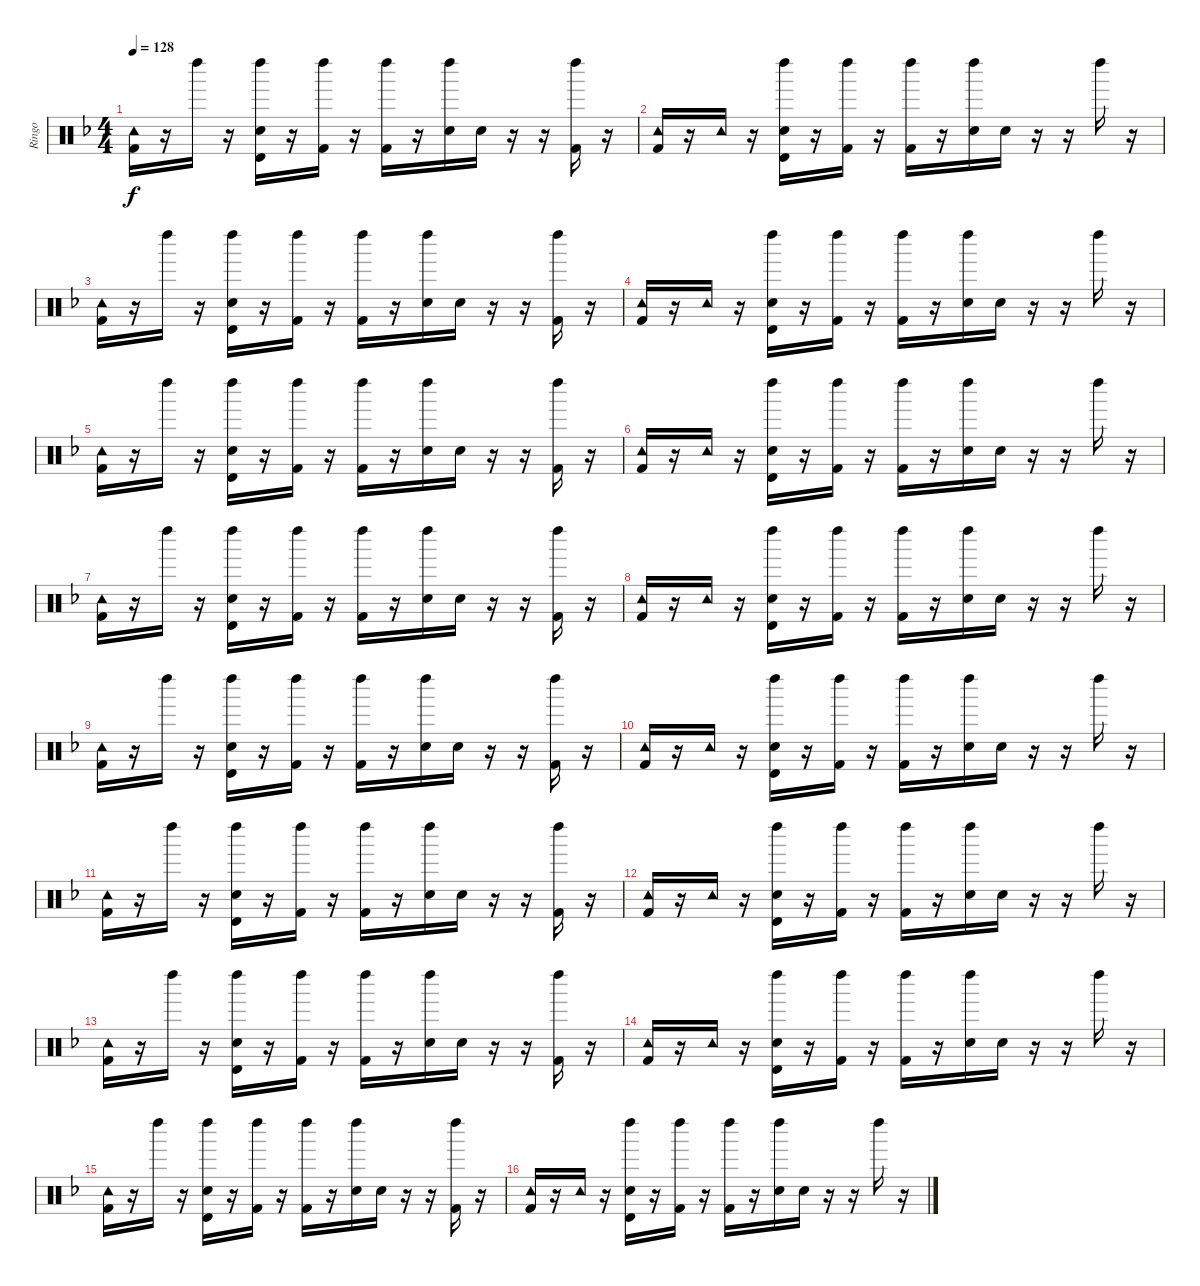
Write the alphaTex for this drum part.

\track ("Ringo" "Ringo") {instrument percussion}
\staff {score}
\articulation defaults
\ts (4 4)
\tempo 128
\clef neutral
\ks f
("Tambourine (hit)" "Kick (hit) 2").16{dy f} r.16 "Left Maraca (hit)".16 r.16 ("Left Maraca (hit)" "Timbale high (hit)" "Electric Snare (hit)").16 r.16 ("Left Maraca (hit)" "Kick (hit) 2").16 r.16 ("Left Maraca (hit)" "Kick (hit) 2").16 r.16 ("Left Maraca (hit)" "Electric Snare (hit)").16 "Electric Snare (hit)".16 r.16 r.16 ("Left Maraca (hit)" "Kick (hit) 2").16 r.16 |
("Tambourine (hit)" "Kick (hit) 2").16 r.16 "Tambourine (hit)".16 r.16 ("Left Maraca (hit)" "Timbale high (hit)" "Electric Snare (hit)").16 r.16 ("Left Maraca (hit)" "Kick (hit) 2").16 r.16 ("Left Maraca (hit)" "Kick (hit) 2").16 r.16 ("Left Maraca (hit)" "Electric Snare (hit)").16 "Electric Snare (hit)".16 r.16 r.16 "Left Maraca (hit)".16 r.16 |
("Tambourine (hit)" "Kick (hit) 2").16 r.16 "Left Maraca (hit)".16 r.16 ("Left Maraca (hit)" "Timbale high (hit)" "Electric Snare (hit)").16 r.16 ("Left Maraca (hit)" "Kick (hit) 2").16 r.16 ("Left Maraca (hit)" "Kick (hit) 2").16 r.16 ("Left Maraca (hit)" "Electric Snare (hit)").16 "Electric Snare (hit)".16 r.16 r.16 ("Left Maraca (hit)" "Kick (hit) 2").16 r.16 |
("Tambourine (hit)" "Kick (hit) 2").16 r.16 "Tambourine (hit)".16 r.16 ("Left Maraca (hit)" "Timbale high (hit)" "Electric Snare (hit)").16 r.16 ("Left Maraca (hit)" "Kick (hit) 2").16 r.16 ("Left Maraca (hit)" "Kick (hit) 2").16 r.16 ("Left Maraca (hit)" "Electric Snare (hit)").16 "Electric Snare (hit)".16 r.16 r.16 "Left Maraca (hit)".16 r.16 |
("Tambourine (hit)" "Kick (hit) 2").16 r.16 "Left Maraca (hit)".16 r.16 ("Left Maraca (hit)" "Timbale high (hit)" "Electric Snare (hit)").16 r.16 ("Left Maraca (hit)" "Kick (hit) 2").16 r.16 ("Left Maraca (hit)" "Kick (hit) 2").16 r.16 ("Left Maraca (hit)" "Electric Snare (hit)").16 "Electric Snare (hit)".16 r.16 r.16 ("Left Maraca (hit)" "Kick (hit) 2").16 r.16 |
("Tambourine (hit)" "Kick (hit) 2").16 r.16 "Tambourine (hit)".16 r.16 ("Left Maraca (hit)" "Timbale high (hit)" "Electric Snare (hit)").16 r.16 ("Left Maraca (hit)" "Kick (hit) 2").16 r.16 ("Left Maraca (hit)" "Kick (hit) 2").16 r.16 ("Left Maraca (hit)" "Electric Snare (hit)").16 "Electric Snare (hit)".16 r.16 r.16 "Left Maraca (hit)".16 r.16 |
("Tambourine (hit)" "Kick (hit) 2").16 r.16 "Left Maraca (hit)".16 r.16 ("Left Maraca (hit)" "Timbale high (hit)" "Electric Snare (hit)").16 r.16 ("Left Maraca (hit)" "Kick (hit) 2").16 r.16 ("Left Maraca (hit)" "Kick (hit) 2").16 r.16 ("Left Maraca (hit)" "Electric Snare (hit)").16 "Electric Snare (hit)".16 r.16 r.16 ("Left Maraca (hit)" "Kick (hit) 2").16 r.16 |
("Tambourine (hit)" "Kick (hit) 2").16 r.16 "Tambourine (hit)".16 r.16 ("Left Maraca (hit)" "Timbale high (hit)" "Electric Snare (hit)").16 r.16 ("Left Maraca (hit)" "Kick (hit) 2").16 r.16 ("Left Maraca (hit)" "Kick (hit) 2").16 r.16 ("Left Maraca (hit)" "Electric Snare (hit)").16 "Electric Snare (hit)".16 r.16 r.16 "Left Maraca (hit)".16 r.16 |
("Tambourine (hit)" "Kick (hit) 2").16 r.16 "Left Maraca (hit)".16 r.16 ("Left Maraca (hit)" "Timbale high (hit)" "Electric Snare (hit)").16 r.16 ("Left Maraca (hit)" "Kick (hit) 2").16 r.16 ("Left Maraca (hit)" "Kick (hit) 2").16 r.16 ("Left Maraca (hit)" "Electric Snare (hit)").16 "Electric Snare (hit)".16 r.16 r.16 ("Left Maraca (hit)" "Kick (hit) 2").16 r.16 |
("Tambourine (hit)" "Kick (hit) 2").16 r.16 "Tambourine (hit)".16 r.16 ("Left Maraca (hit)" "Timbale high (hit)" "Electric Snare (hit)").16 r.16 ("Left Maraca (hit)" "Kick (hit) 2").16 r.16 ("Left Maraca (hit)" "Kick (hit) 2").16 r.16 ("Left Maraca (hit)" "Electric Snare (hit)").16 "Electric Snare (hit)".16 r.16 r.16 "Left Maraca (hit)".16 r.16 |
("Tambourine (hit)" "Kick (hit) 2").16 r.16 "Left Maraca (hit)".16 r.16 ("Left Maraca (hit)" "Timbale high (hit)" "Electric Snare (hit)").16 r.16 ("Left Maraca (hit)" "Kick (hit) 2").16 r.16 ("Left Maraca (hit)" "Kick (hit) 2").16 r.16 ("Left Maraca (hit)" "Electric Snare (hit)").16 "Electric Snare (hit)".16 r.16 r.16 ("Left Maraca (hit)" "Kick (hit) 2").16 r.16 |
("Tambourine (hit)" "Kick (hit) 2").16 r.16 "Tambourine (hit)".16 r.16 ("Left Maraca (hit)" "Timbale high (hit)" "Electric Snare (hit)").16 r.16 ("Left Maraca (hit)" "Kick (hit) 2").16 r.16 ("Left Maraca (hit)" "Kick (hit) 2").16 r.16 ("Left Maraca (hit)" "Electric Snare (hit)").16 "Electric Snare (hit)".16 r.16 r.16 "Left Maraca (hit)".16 r.16 |
("Tambourine (hit)" "Kick (hit) 2").16 r.16 "Left Maraca (hit)".16 r.16 ("Left Maraca (hit)" "Timbale high (hit)" "Electric Snare (hit)").16 r.16 ("Left Maraca (hit)" "Kick (hit) 2").16 r.16 ("Left Maraca (hit)" "Kick (hit) 2").16 r.16 ("Left Maraca (hit)" "Electric Snare (hit)").16 "Electric Snare (hit)".16 r.16 r.16 ("Left Maraca (hit)" "Kick (hit) 2").16 r.16 |
("Tambourine (hit)" "Kick (hit) 2").16 r.16 "Tambourine (hit)".16 r.16 ("Left Maraca (hit)" "Timbale high (hit)" "Electric Snare (hit)").16 r.16 ("Left Maraca (hit)" "Kick (hit) 2").16 r.16 ("Left Maraca (hit)" "Kick (hit) 2").16 r.16 ("Left Maraca (hit)" "Electric Snare (hit)").16 "Electric Snare (hit)".16 r.16 r.16 "Left Maraca (hit)".16 r.16 |
("Tambourine (hit)" "Kick (hit) 2").16 r.16 "Left Maraca (hit)".16 r.16 ("Left Maraca (hit)" "Timbale high (hit)" "Electric Snare (hit)").16 r.16 ("Left Maraca (hit)" "Kick (hit) 2").16 r.16 ("Left Maraca (hit)" "Kick (hit) 2").16 r.16 ("Left Maraca (hit)" "Electric Snare (hit)").16 "Electric Snare (hit)".16 r.16 r.16 ("Left Maraca (hit)" "Kick (hit) 2").16 r.16 |
("Tambourine (hit)" "Kick (hit) 2").16 r.16 "Tambourine (hit)".16 r.16 ("Left Maraca (hit)" "Timbale high (hit)" "Electric Snare (hit)").16 r.16 ("Left Maraca (hit)" "Kick (hit) 2").16 r.16 ("Left Maraca (hit)" "Kick (hit) 2").16 r.16 ("Left Maraca (hit)" "Electric Snare (hit)").16 "Electric Snare (hit)".16 r.16 r.16 "Left Maraca (hit)".16 r.16
